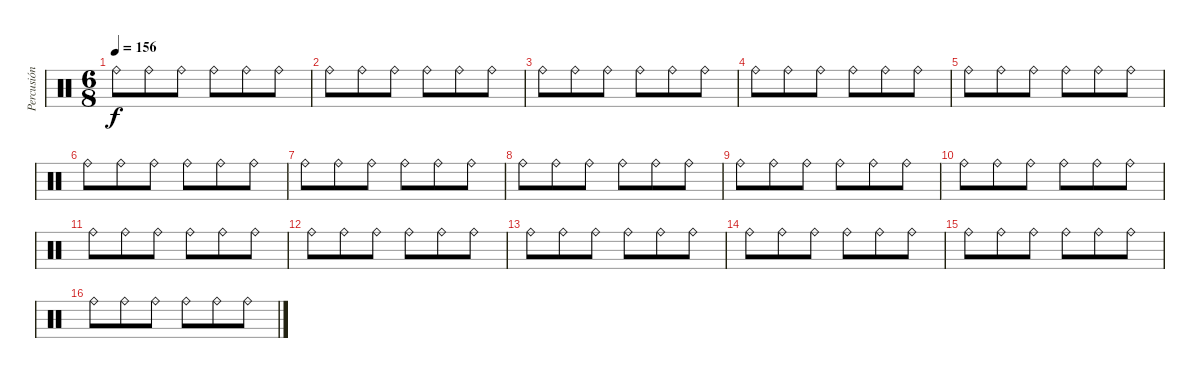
\track ("Percusión" "Percusión") {instrument percussion}
\staff {score}
\articulation defaults
\ts (6 8)
\tempo 156
\clef neutral
\ks c "Ride (bell)".8{dy f} "Ride (bell)".8 "Ride (bell)".8 "Ride (bell)".8 "Ride (bell)".8 "Ride (bell)".8
|
"Ride (bell)".8 "Ride (bell)".8 "Ride (bell)".8 "Ride (bell)".8 "Ride (bell)".8 "Ride (bell)".8 |
"Ride (bell)".8 "Ride (bell)".8 "Ride (bell)".8 "Ride (bell)".8 "Ride (bell)".8 "Ride (bell)".8 |
"Ride (bell)".8 "Ride (bell)".8 "Ride (bell)".8 "Ride (bell)".8 "Ride (bell)".8 "Ride (bell)".8 |
"Ride (bell)".8 "Ride (bell)".8 "Ride (bell)".8 "Ride (bell)".8 "Ride (bell)".8 "Ride (bell)".8 |
"Ride (bell)".8 "Ride (bell)".8 "Ride (bell)".8 "Ride (bell)".8 "Ride (bell)".8 "Ride (bell)".8 |
"Ride (bell)".8 "Ride (bell)".8 "Ride (bell)".8 "Ride (bell)".8 "Ride (bell)".8 "Ride (bell)".8 |
"Ride (bell)".8 "Ride (bell)".8 "Ride (bell)".8 "Ride (bell)".8 "Ride (bell)".8 "Ride (bell)".8 |
"Ride (bell)".8 "Ride (bell)".8 "Ride (bell)".8 "Ride (bell)".8 "Ride (bell)".8 "Ride (bell)".8 |
"Ride (bell)".8 "Ride (bell)".8 "Ride (bell)".8 "Ride (bell)".8 "Ride (bell)".8 "Ride (bell)".8 |
"Ride (bell)".8 "Ride (bell)".8 "Ride (bell)".8 "Ride (bell)".8 "Ride (bell)".8 "Ride (bell)".8 |
"Ride (bell)".8 "Ride (bell)".8 "Ride (bell)".8 "Ride (bell)".8 "Ride (bell)".8 "Ride (bell)".8 |
"Ride (bell)".8 "Ride (bell)".8 "Ride (bell)".8 "Ride (bell)".8 "Ride (bell)".8 "Ride (bell)".8 |
"Ride (bell)".8 "Ride (bell)".8 "Ride (bell)".8 "Ride (bell)".8 "Ride (bell)".8 "Ride (bell)".8 |
"Ride (bell)".8 "Ride (bell)".8 "Ride (bell)".8 "Ride (bell)".8 "Ride (bell)".8 "Ride (bell)".8 |
"Ride (bell)".8 "Ride (bell)".8 "Ride (bell)".8 "Ride (bell)".8 "Ride (bell)".8 "Ride (bell)".8
